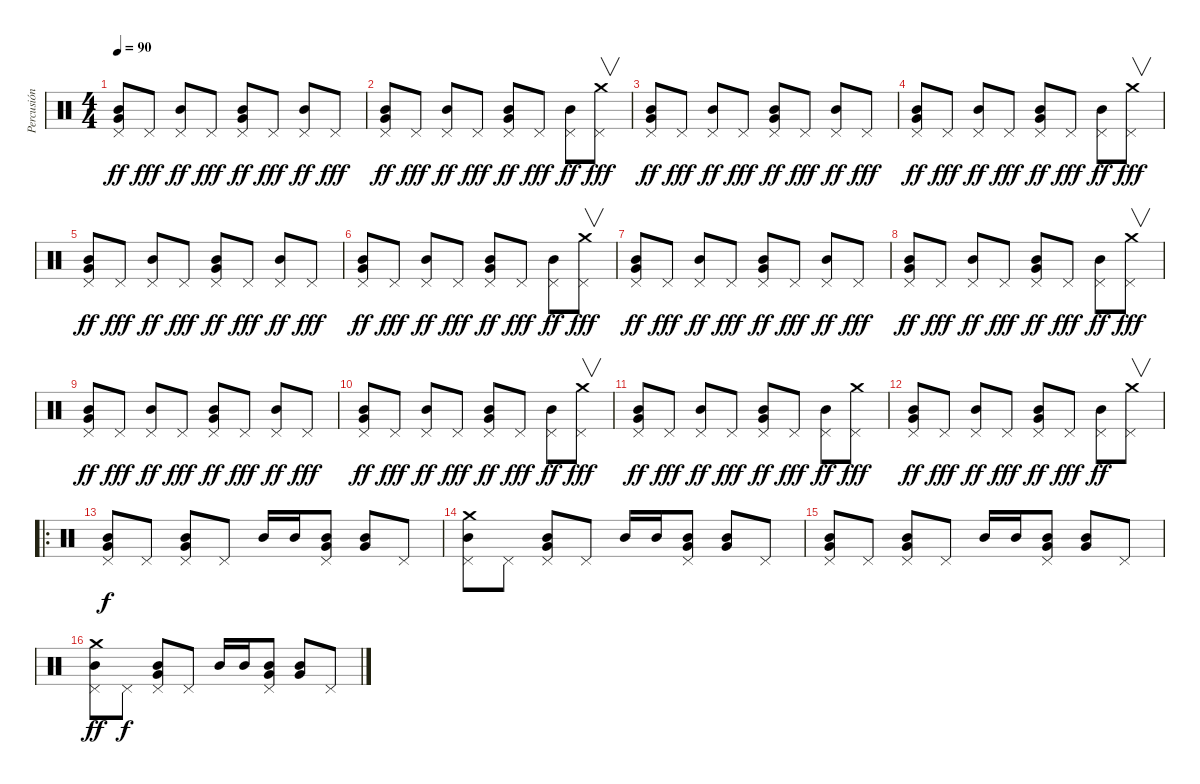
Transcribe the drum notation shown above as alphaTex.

\track ("Percusión" "Percusión") {instrument percussion}
\staff {score}
\articulation defaults
\ts (4 4)
\tempo 90
\clef neutral
\ks c
("Pedal Hi-Hat (hit)" "Very Low Tom (hit)" "Mid Tom (hit)").8{dy ff} "Pedal Hi-Hat (hit)".8{dy fff} ("Pedal Hi-Hat (hit)" "Mid Tom (hit)").8{dy ff} "Pedal Hi-Hat (hit)".8{dy fff} ("Pedal Hi-Hat (hit)" "Very Low Tom (hit)" "Mid Tom (hit)").8{dy ff} "Pedal Hi-Hat (hit)".8{dy fff} ("Pedal Hi-Hat (hit)" "Mid Tom (hit)").8{dy ff} "Pedal Hi-Hat (hit)".8{dy fff} |
("Pedal Hi-Hat (hit)" "Very Low Tom (hit)" "Mid Tom (hit)").8{dy ff} "Pedal Hi-Hat (hit)".8{dy fff} ("Pedal Hi-Hat (hit)" "Mid Tom (hit)").8{dy ff} "Pedal Hi-Hat (hit)".8{dy fff} ("Pedal Hi-Hat (hit)" "Very Low Tom (hit)" "Mid Tom (hit)").8{dy ff} "Pedal Hi-Hat (hit)".8{dy fff} ("Pedal Hi-Hat (hit)" "Mid Tom (hit)").8{dy ff} ("Pedal Hi-Hat (hit)" "Crash medium (hit)").8{v dy fff} |
("Pedal Hi-Hat (hit)" "Very Low Tom (hit)" "Mid Tom (hit)").8{dy ff} "Pedal Hi-Hat (hit)".8{dy fff} ("Pedal Hi-Hat (hit)" "Mid Tom (hit)").8{dy ff} "Pedal Hi-Hat (hit)".8{dy fff} ("Pedal Hi-Hat (hit)" "Very Low Tom (hit)" "Mid Tom (hit)").8{dy ff} "Pedal Hi-Hat (hit)".8{dy fff} ("Pedal Hi-Hat (hit)" "Mid Tom (hit)").8{dy ff} "Pedal Hi-Hat (hit)".8{dy fff} |
("Pedal Hi-Hat (hit)" "Very Low Tom (hit)" "Mid Tom (hit)").8{dy ff} "Pedal Hi-Hat (hit)".8{dy fff} ("Pedal Hi-Hat (hit)" "Mid Tom (hit)").8{dy ff} "Pedal Hi-Hat (hit)".8{dy fff} ("Pedal Hi-Hat (hit)" "Very Low Tom (hit)" "Mid Tom (hit)").8{dy ff} "Pedal Hi-Hat (hit)".8{dy fff} ("Pedal Hi-Hat (hit)" "Mid Tom (hit)").8{dy ff} ("Pedal Hi-Hat (hit)" "Crash medium (hit)").8{v dy fff} |
("Pedal Hi-Hat (hit)" "Very Low Tom (hit)" "Mid Tom (hit)").8{dy ff} "Pedal Hi-Hat (hit)".8{dy fff} ("Pedal Hi-Hat (hit)" "Mid Tom (hit)").8{dy ff} "Pedal Hi-Hat (hit)".8{dy fff} ("Pedal Hi-Hat (hit)" "Very Low Tom (hit)" "Mid Tom (hit)").8{dy ff} "Pedal Hi-Hat (hit)".8{dy fff} ("Pedal Hi-Hat (hit)" "Mid Tom (hit)").8{dy ff} "Pedal Hi-Hat (hit)".8{dy fff} |
("Pedal Hi-Hat (hit)" "Very Low Tom (hit)" "Mid Tom (hit)").8{dy ff} "Pedal Hi-Hat (hit)".8{dy fff} ("Pedal Hi-Hat (hit)" "Mid Tom (hit)").8{dy ff} "Pedal Hi-Hat (hit)".8{dy fff} ("Pedal Hi-Hat (hit)" "Very Low Tom (hit)" "Mid Tom (hit)").8{dy ff} "Pedal Hi-Hat (hit)".8{dy fff} ("Pedal Hi-Hat (hit)" "Mid Tom (hit)").8{dy ff} ("Pedal Hi-Hat (hit)" "Crash medium (hit)").8{v dy fff} |
("Pedal Hi-Hat (hit)" "Very Low Tom (hit)" "Mid Tom (hit)").8{dy ff} "Pedal Hi-Hat (hit)".8{dy fff} ("Pedal Hi-Hat (hit)" "Mid Tom (hit)").8{dy ff} "Pedal Hi-Hat (hit)".8{dy fff} ("Pedal Hi-Hat (hit)" "Very Low Tom (hit)" "Mid Tom (hit)").8{dy ff} "Pedal Hi-Hat (hit)".8{dy fff} ("Pedal Hi-Hat (hit)" "Mid Tom (hit)").8{dy ff} "Pedal Hi-Hat (hit)".8{dy fff} |
("Pedal Hi-Hat (hit)" "Very Low Tom (hit)" "Mid Tom (hit)").8{dy ff} "Pedal Hi-Hat (hit)".8{dy fff} ("Pedal Hi-Hat (hit)" "Mid Tom (hit)").8{dy ff} "Pedal Hi-Hat (hit)".8{dy fff} ("Pedal Hi-Hat (hit)" "Very Low Tom (hit)" "Mid Tom (hit)").8{dy ff} "Pedal Hi-Hat (hit)".8{dy fff} ("Pedal Hi-Hat (hit)" "Mid Tom (hit)").8{dy ff} ("Pedal Hi-Hat (hit)" "Crash medium (hit)").8{v dy fff} |
("Pedal Hi-Hat (hit)" "Very Low Tom (hit)" "Mid Tom (hit)").8{dy ff} "Pedal Hi-Hat (hit)".8{dy fff} ("Pedal Hi-Hat (hit)" "Mid Tom (hit)").8{dy ff} "Pedal Hi-Hat (hit)".8{dy fff} ("Pedal Hi-Hat (hit)" "Very Low Tom (hit)" "Mid Tom (hit)").8{dy ff} "Pedal Hi-Hat (hit)".8{dy fff} ("Pedal Hi-Hat (hit)" "Mid Tom (hit)").8{dy ff} "Pedal Hi-Hat (hit)".8{dy fff} |
("Pedal Hi-Hat (hit)" "Very Low Tom (hit)" "Mid Tom (hit)").8{dy ff} "Pedal Hi-Hat (hit)".8{dy fff} ("Pedal Hi-Hat (hit)" "Mid Tom (hit)").8{dy ff} "Pedal Hi-Hat (hit)".8{dy fff} ("Pedal Hi-Hat (hit)" "Very Low Tom (hit)" "Mid Tom (hit)").8{dy ff} "Pedal Hi-Hat (hit)".8{dy fff} ("Pedal Hi-Hat (hit)" "Mid Tom (hit)").8{dy ff} ("Pedal Hi-Hat (hit)" "Crash medium (hit)").8{v dy fff} |
("Pedal Hi-Hat (hit)" "Very Low Tom (hit)" "Mid Tom (hit)").8{dy ff} "Pedal Hi-Hat (hit)".8{dy fff} ("Pedal Hi-Hat (hit)" "Mid Tom (hit)").8{dy ff} "Pedal Hi-Hat (hit)".8{dy fff} ("Pedal Hi-Hat (hit)" "Very Low Tom (hit)" "Mid Tom (hit)").8{dy ff} "Pedal Hi-Hat (hit)".8{dy fff} ("Pedal Hi-Hat (hit)" "Mid Tom (hit)").8{dy ff} ("Pedal Hi-Hat (hit)" "Crash medium (hit)").8{dy fff} |
("Pedal Hi-Hat (hit)" "Very Low Tom (hit)" "Mid Tom (hit)").8{dy ff} "Pedal Hi-Hat (hit)".8{dy fff} ("Pedal Hi-Hat (hit)" "Mid Tom (hit)").8{dy ff} "Pedal Hi-Hat (hit)".8{dy fff} ("Pedal Hi-Hat (hit)" "Very Low Tom (hit)" "Mid Tom (hit)").8{dy ff} "Pedal Hi-Hat (hit)".8{dy fff} ("Pedal Hi-Hat (hit)" "Mid Tom (hit)").8{dy ff} ("Pedal Hi-Hat (hit)" "Crash medium (hit)").8{v} |
\ro
("Pedal Hi-Hat (hit)" "Very Low Tom (hit)" "Mid Tom (hit)").8{dy f} "Pedal Hi-Hat (hit)".8 ("Pedal Hi-Hat (hit)" "Very Low Tom (hit)" "Mid Tom (hit)").8 "Pedal Hi-Hat (hit)".8 "Mid Tom (hit)".16 "Mid Tom (hit)".16 ("Pedal Hi-Hat (hit)" "Very Low Tom (hit)" "Mid Tom (hit)").8 ("Very Low Tom (hit)" "Mid Tom (hit)").8 "Pedal Hi-Hat (hit)".8 |
("Pedal Hi-Hat (hit)" "Mid Tom (hit)" "Crash medium (hit)").8 "Pedal Hi-Hat (hit)".8 ("Pedal Hi-Hat (hit)" "Very Low Tom (hit)" "Mid Tom (hit)").8 "Pedal Hi-Hat (hit)".8 "Mid Tom (hit)".16 "Mid Tom (hit)".16 ("Pedal Hi-Hat (hit)" "Very Low Tom (hit)" "Mid Tom (hit)").8 ("Very Low Tom (hit)" "Mid Tom (hit)").8 "Pedal Hi-Hat (hit)".8 |
("Pedal Hi-Hat (hit)" "Very Low Tom (hit)" "Mid Tom (hit)").8 "Pedal Hi-Hat (hit)".8 ("Pedal Hi-Hat (hit)" "Very Low Tom (hit)" "Mid Tom (hit)").8 "Pedal Hi-Hat (hit)".8 "Mid Tom (hit)".16 "Mid Tom (hit)".16 ("Pedal Hi-Hat (hit)" "Very Low Tom (hit)" "Mid Tom (hit)").8 ("Very Low Tom (hit)" "Mid Tom (hit)").8 "Pedal Hi-Hat (hit)".8 |
("Pedal Hi-Hat (hit)" "Mid Tom (hit)" "Crash medium (hit)").8{dy ff} "Pedal Hi-Hat (hit)".8{dy f} ("Pedal Hi-Hat (hit)" "Very Low Tom (hit)" "Mid Tom (hit)").8 "Pedal Hi-Hat (hit)".8 "Mid Tom (hit)".16 "Mid Tom (hit)".16 ("Pedal Hi-Hat (hit)" "Very Low Tom (hit)" "Mid Tom (hit)").8 ("Very Low Tom (hit)" "Mid Tom (hit)").8 "Pedal Hi-Hat (hit)".8
